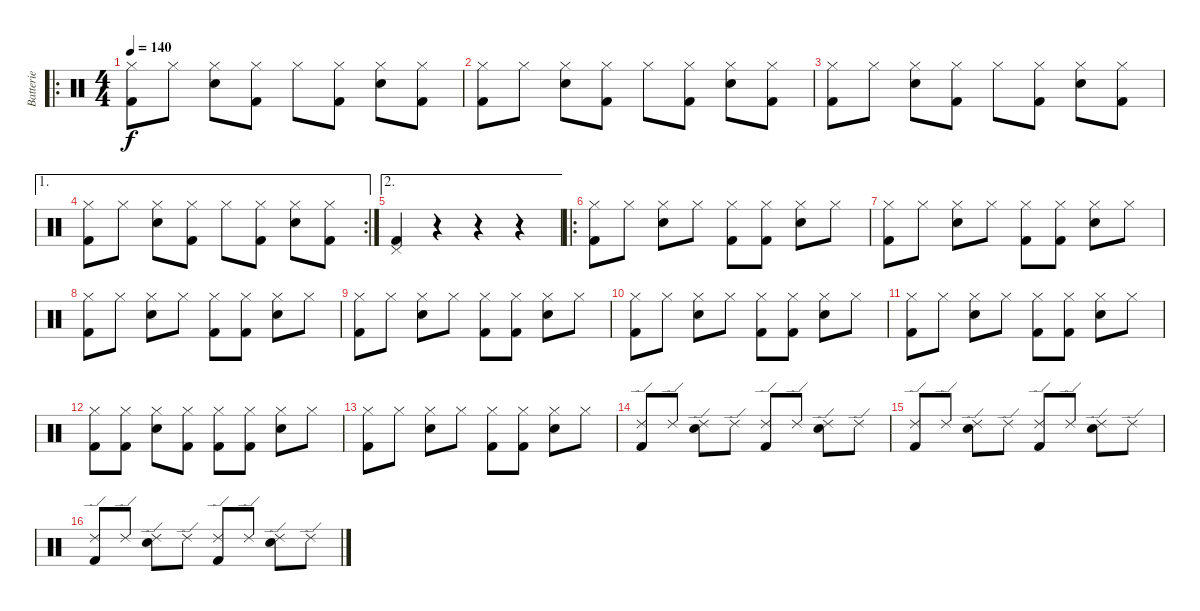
\track ("Batterie" "Batterie") {instrument percussion}
\staff {score}
\articulation defaults
\ro
\ts (4 4)
\tempo 140
\clef neutral
\ks c
("Hi-Hat (closed)" "Kick (hit) 2").8{dy f} "Hi-Hat (closed)".8 ("Hi-Hat (closed)" "Snare (hit) 2").8 ("Hi-Hat (closed)" "Kick (hit) 2").8 "Hi-Hat (closed)".8 ("Hi-Hat (closed)" "Kick (hit) 2").8 ("Hi-Hat (closed)" "Snare (hit) 2").8 ("Hi-Hat (closed)" "Kick (hit) 2").8 |
("Hi-Hat (closed)" "Kick (hit) 2").8 "Hi-Hat (closed)".8 ("Hi-Hat (closed)" "Snare (hit) 2").8 ("Hi-Hat (closed)" "Kick (hit) 2").8 "Hi-Hat (closed)".8 ("Hi-Hat (closed)" "Kick (hit) 2").8 ("Hi-Hat (closed)" "Snare (hit) 2").8 ("Hi-Hat (closed)" "Kick (hit) 2").8 |
("Hi-Hat (closed)" "Kick (hit) 2").8 "Hi-Hat (closed)".8 ("Hi-Hat (closed)" "Snare (hit) 2").8 ("Hi-Hat (closed)" "Kick (hit) 2").8 "Hi-Hat (closed)".8 ("Hi-Hat (closed)" "Kick (hit) 2").8 ("Hi-Hat (closed)" "Snare (hit) 2").8 ("Hi-Hat (closed)" "Kick (hit) 2").8 |
\ae 1
\rc 2
("Hi-Hat (closed)" "Kick (hit) 2").8 "Hi-Hat (closed)".8 ("Hi-Hat (closed)" "Snare (hit) 2").8 ("Hi-Hat (closed)" "Kick (hit) 2").8 "Hi-Hat (closed)".8 ("Hi-Hat (closed)" "Kick (hit) 2").8 ("Hi-Hat (closed)" "Snare (hit) 2").8 ("Hi-Hat (closed)" "Kick (hit) 2").8 |
\ae 2
("Pedal Hi-Hat (hit)" "Kick (hit) 2").4 r.4 r.4 r.4 |
\ro
("Hi-Hat (closed)" "Kick (hit) 2").8 "Hi-Hat (closed)".8 ("Hi-Hat (closed)" "Snare (hit) 2").8 "Hi-Hat (closed)".8 ("Hi-Hat (closed)" "Kick (hit) 2").8 ("Hi-Hat (closed)" "Kick (hit) 2").8 ("Hi-Hat (closed)" "Snare (hit) 2").8 "Hi-Hat (closed)".8 |
("Hi-Hat (closed)" "Kick (hit) 2").8 "Hi-Hat (closed)".8 ("Hi-Hat (closed)" "Snare (hit) 2").8 "Hi-Hat (closed)".8 ("Hi-Hat (closed)" "Kick (hit) 2").8 ("Hi-Hat (closed)" "Kick (hit) 2").8 ("Hi-Hat (closed)" "Snare (hit) 2").8 "Hi-Hat (closed)".8 |
("Hi-Hat (closed)" "Kick (hit) 2").8 "Hi-Hat (closed)".8 ("Hi-Hat (closed)" "Snare (hit) 2").8 "Hi-Hat (closed)".8 ("Hi-Hat (closed)" "Kick (hit) 2").8 ("Hi-Hat (closed)" "Kick (hit) 2").8 ("Hi-Hat (closed)" "Snare (hit) 2").8 "Hi-Hat (closed)".8 |
("Hi-Hat (closed)" "Kick (hit) 2").8 "Hi-Hat (closed)".8 ("Hi-Hat (closed)" "Snare (hit) 2").8 "Hi-Hat (closed)".8 ("Hi-Hat (closed)" "Kick (hit) 2").8 ("Hi-Hat (closed)" "Kick (hit) 2").8 ("Hi-Hat (closed)" "Snare (hit) 2").8 "Hi-Hat (closed)".8 |
("Hi-Hat (closed)" "Kick (hit) 2").8 "Hi-Hat (closed)".8 ("Hi-Hat (closed)" "Snare (hit) 2").8 "Hi-Hat (closed)".8 ("Hi-Hat (closed)" "Kick (hit) 2").8 ("Hi-Hat (closed)" "Kick (hit) 2").8 ("Hi-Hat (closed)" "Snare (hit) 2").8 "Hi-Hat (closed)".8 |
("Hi-Hat (closed)" "Kick (hit) 2").8 "Hi-Hat (closed)".8 ("Hi-Hat (closed)" "Snare (hit) 2").8 "Hi-Hat (closed)".8 ("Hi-Hat (closed)" "Kick (hit) 2").8 ("Hi-Hat (closed)" "Kick (hit) 2").8 ("Hi-Hat (closed)" "Snare (hit) 2").8 "Hi-Hat (closed)".8 |
("Hi-Hat (closed)" "Kick (hit) 2").8 ("Hi-Hat (closed)" "Kick (hit) 2").8 ("Hi-Hat (closed)" "Snare (hit) 2").8 ("Hi-Hat (closed)" "Kick (hit) 2").8 ("Hi-Hat (closed)" "Kick (hit) 2").8 ("Hi-Hat (closed)" "Kick (hit) 2").8 ("Hi-Hat (closed)" "Snare (hit) 2").8 "Hi-Hat (closed)".8 |
("Hi-Hat (closed)" "Kick (hit) 2").8 "Hi-Hat (closed)".8 ("Hi-Hat (closed)" "Snare (hit) 2").8 "Hi-Hat (closed)".8 ("Hi-Hat (closed)" "Kick (hit) 2").8 ("Hi-Hat (closed)" "Kick (hit) 2").8 ("Hi-Hat (closed)" "Snare (hit) 2").8 "Hi-Hat (closed)".8 |
("Ride (edge) 2" "Kick (hit) 2").8 "Ride (edge) 2".8 ("Ride (edge) 2" "Snare (hit) 2").8 "Ride (edge) 2".8 ("Ride (edge) 2" "Kick (hit) 2").8 "Ride (edge) 2".8 ("Ride (edge) 2" "Snare (hit) 2").8 "Ride (edge) 2".8 |
("Ride (edge) 2" "Kick (hit) 2").8 "Ride (edge) 2".8 ("Ride (edge) 2" "Snare (hit) 2").8 "Ride (edge) 2".8 ("Ride (edge) 2" "Kick (hit) 2").8 "Ride (edge) 2".8 ("Ride (edge) 2" "Snare (hit) 2").8 "Ride (edge) 2".8 |
("Ride (edge) 2" "Kick (hit) 2").8 "Ride (edge) 2".8 ("Ride (edge) 2" "Snare (hit) 2").8 "Ride (edge) 2".8 ("Ride (edge) 2" "Kick (hit) 2").8 "Ride (edge) 2".8 ("Ride (edge) 2" "Snare (hit) 2").8 "Ride (edge) 2".8
